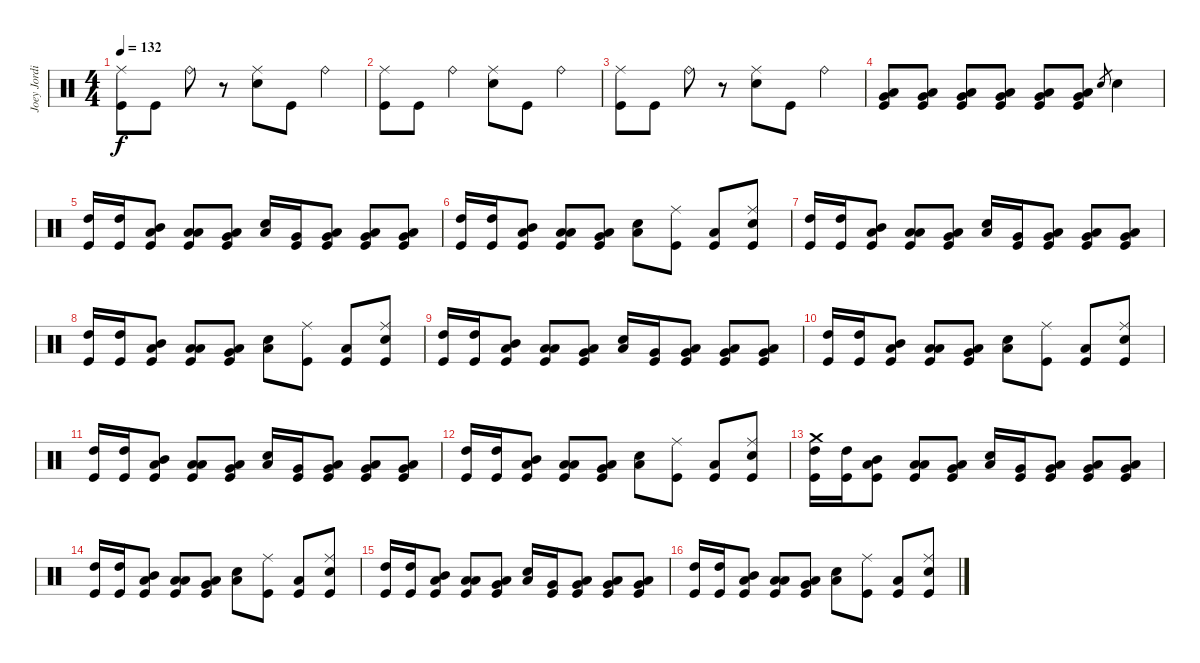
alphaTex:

\track ("Joey Jordison" "Joey Jordi") {instrument percussion}
\staff {score}
\articulation defaults
\ts (4 4)
\tempo 132
\clef neutral
\ks c
("Kick (hit)" "Ride (middle)").8{dy f} "Kick (hit)".8 "Ride (bell)".8 r.8 ("Snare (hit) 2" "Ride (middle)").8 "Kick (hit)".8 "Ride (bell)".4 |
("Kick (hit)" "Ride (middle)").8 "Kick (hit)".8 "Ride (bell)".4 ("Snare (hit) 2" "Ride (middle)").8 "Kick (hit)".8 "Ride (bell)".4 |
("Kick (hit)" "Ride (middle)").8 "Kick (hit)".8 "Ride (bell)".8 r.8 ("Snare (hit) 2" "Ride (middle)").8 "Kick (hit)".8 "Ride (bell)".4 |
("Kick (hit)" "Low Floor Tom (hit)" "Very Low Tom (hit)").8 ("Kick (hit)" "Low Floor Tom (hit)" "Very Low Tom (hit)").8 ("Kick (hit)" "Low Floor Tom (hit)" "Very Low Tom (hit)").8 ("Kick (hit)" "Low Floor Tom (hit)" "Very Low Tom (hit)").8 ("Kick (hit)" "Very Low Tom (hit)" "Low Floor Tom (hit)").8 ("Kick (hit)" "Very Low Tom (hit)" "Low Floor Tom (hit)").8 "Snare (hit)".8{gr} "Snare (hit) 2".4 |
("Kick (hit)" "High Tom (hit)").16 ("Kick (hit)" "High Tom (hit)").16 ("Kick (hit)" "Low Floor Tom (hit)" "Mid Tom (hit)").8 ("Kick (hit)" "Low Floor Tom (hit)" "Low Tom (hit)").8 ("Kick (hit)" "Low Floor Tom (hit)" "Very Low Tom (hit)").8 ("Snare (hit) 2" "Low Floor Tom (hit)").16 ("Kick (hit)" "Very Low Tom (hit)").16 ("Kick (hit)" "Low Floor Tom (hit)" "Very Low Tom (hit)").8 ("Kick (hit)" "Low Floor Tom (hit)" "Very Low Tom (hit)").8 ("Kick (hit)" "Low Floor Tom (hit)" "Very Low Tom (hit)").8 |
("Kick (hit)" "High Tom (hit)").16 ("Kick (hit)" "High Tom (hit)").16 ("Kick (hit)" "Low Floor Tom (hit)" "Mid Tom (hit)").8 ("Kick (hit)" "Low Floor Tom (hit)" "Low Tom (hit)").8 ("Kick (hit)" "Low Floor Tom (hit)" "Very Low Tom (hit)").8 ("Snare (hit) 2" "Low Floor Tom (hit)").8 ("Kick (hit)" "Ride (middle)").8 ("Kick (hit)" "Low Floor Tom (hit)").8 ("Kick (hit)" "Snare (hit) 2" "Ride (middle)").8 |
("Kick (hit)" "High Tom (hit)").16 ("Kick (hit)" "High Tom (hit)").16 ("Kick (hit)" "Low Floor Tom (hit)" "Mid Tom (hit)").8 ("Kick (hit)" "Low Floor Tom (hit)" "Low Tom (hit)").8 ("Kick (hit)" "Low Floor Tom (hit)" "Very Low Tom (hit)").8 ("Snare (hit) 2" "Low Floor Tom (hit)").16 ("Kick (hit)" "Very Low Tom (hit)").16 ("Kick (hit)" "Low Floor Tom (hit)" "Very Low Tom (hit)").8 ("Kick (hit)" "Low Floor Tom (hit)" "Very Low Tom (hit)").8 ("Kick (hit)" "Low Floor Tom (hit)" "Very Low Tom (hit)").8 |
("Kick (hit)" "High Tom (hit)").16 ("Kick (hit)" "High Tom (hit)").16 ("Kick (hit)" "Low Floor Tom (hit)" "Mid Tom (hit)").8 ("Kick (hit)" "Low Floor Tom (hit)" "Low Tom (hit)").8 ("Kick (hit)" "Low Floor Tom (hit)" "Very Low Tom (hit)").8 ("Snare (hit) 2" "Low Floor Tom (hit)").8 ("Kick (hit)" "Ride (middle)").8 ("Kick (hit)" "Low Floor Tom (hit)").8 ("Kick (hit)" "Snare (hit) 2" "Ride (middle)").8 |
("Kick (hit)" "High Tom (hit)").16 ("Kick (hit)" "High Tom (hit)").16 ("Kick (hit)" "Low Floor Tom (hit)" "Mid Tom (hit)").8 ("Kick (hit)" "Low Floor Tom (hit)" "Low Tom (hit)").8 ("Kick (hit)" "Low Floor Tom (hit)" "Very Low Tom (hit)").8 ("Snare (hit) 2" "Low Floor Tom (hit)").16 ("Kick (hit)" "Very Low Tom (hit)").16 ("Kick (hit)" "Low Floor Tom (hit)" "Very Low Tom (hit)").8 ("Kick (hit)" "Low Floor Tom (hit)" "Very Low Tom (hit)").8 ("Kick (hit)" "Low Floor Tom (hit)" "Very Low Tom (hit)").8 |
("Kick (hit)" "High Tom (hit)").16 ("Kick (hit)" "High Tom (hit)").16 ("Kick (hit)" "Low Floor Tom (hit)" "Mid Tom (hit)").8 ("Kick (hit)" "Low Floor Tom (hit)" "Low Tom (hit)").8 ("Kick (hit)" "Low Floor Tom (hit)" "Very Low Tom (hit)").8 ("Snare (hit) 2" "Low Floor Tom (hit)").8 ("Kick (hit)" "Ride (middle)").8 ("Kick (hit)" "Low Floor Tom (hit)").8 ("Kick (hit)" "Snare (hit) 2" "Ride (middle)").8 |
("Kick (hit)" "High Tom (hit)").16 ("Kick (hit)" "High Tom (hit)").16 ("Kick (hit)" "Low Floor Tom (hit)" "Mid Tom (hit)").8 ("Kick (hit)" "Low Floor Tom (hit)" "Low Tom (hit)").8 ("Kick (hit)" "Low Floor Tom (hit)" "Very Low Tom (hit)").8 ("Snare (hit) 2" "Low Floor Tom (hit)").16 ("Kick (hit)" "Very Low Tom (hit)").16 ("Kick (hit)" "Low Floor Tom (hit)" "Very Low Tom (hit)").8 ("Kick (hit)" "Low Floor Tom (hit)" "Very Low Tom (hit)").8 ("Kick (hit)" "Low Floor Tom (hit)" "Very Low Tom (hit)").8 |
("Kick (hit)" "High Tom (hit)").16 ("Kick (hit)" "High Tom (hit)").16 ("Kick (hit)" "Low Floor Tom (hit)" "Mid Tom (hit)").8 ("Kick (hit)" "Low Floor Tom (hit)" "Low Tom (hit)").8 ("Kick (hit)" "Low Floor Tom (hit)" "Very Low Tom (hit)").8 ("Snare (hit) 2" "Low Floor Tom (hit)").8 ("Kick (hit)" "Ride (middle)").8 ("Kick (hit)" "Low Floor Tom (hit)").8 ("Kick (hit)" "Snare (hit) 2" "Ride (middle)").8 |
("Kick (hit)" "High Tom (hit)" "Crash medium (hit)").16 ("Kick (hit)" "High Tom (hit)").16 ("Kick (hit)" "Low Floor Tom (hit)" "Mid Tom (hit)").8 ("Kick (hit)" "Low Floor Tom (hit)" "Low Tom (hit)").8 ("Kick (hit)" "Low Floor Tom (hit)" "Very Low Tom (hit)").8 ("Snare (hit) 2" "Low Floor Tom (hit)").16 ("Kick (hit)" "Very Low Tom (hit)").16 ("Kick (hit)" "Low Floor Tom (hit)" "Very Low Tom (hit)").8 ("Kick (hit)" "Low Floor Tom (hit)" "Very Low Tom (hit)").8 ("Kick (hit)" "Low Floor Tom (hit)" "Very Low Tom (hit)").8 |
("Kick (hit)" "High Tom (hit)").16 ("Kick (hit)" "High Tom (hit)").16 ("Kick (hit)" "Low Floor Tom (hit)" "Mid Tom (hit)").8 ("Kick (hit)" "Low Floor Tom (hit)" "Low Tom (hit)").8 ("Kick (hit)" "Low Floor Tom (hit)" "Very Low Tom (hit)").8 ("Snare (hit) 2" "Low Floor Tom (hit)").8 ("Kick (hit)" "Ride (middle)").8 ("Kick (hit)" "Low Floor Tom (hit)").8 ("Kick (hit)" "Snare (hit) 2" "Ride (middle)").8 |
("Kick (hit)" "High Tom (hit)").16 ("Kick (hit)" "High Tom (hit)").16 ("Kick (hit)" "Low Floor Tom (hit)" "Mid Tom (hit)").8 ("Kick (hit)" "Low Floor Tom (hit)" "Low Tom (hit)").8 ("Kick (hit)" "Low Floor Tom (hit)" "Very Low Tom (hit)").8 ("Snare (hit) 2" "Low Floor Tom (hit)").16 ("Kick (hit)" "Very Low Tom (hit)").16 ("Kick (hit)" "Low Floor Tom (hit)" "Very Low Tom (hit)").8 ("Kick (hit)" "Low Floor Tom (hit)" "Very Low Tom (hit)").8 ("Kick (hit)" "Low Floor Tom (hit)" "Very Low Tom (hit)").8 |
("Kick (hit)" "High Tom (hit)").16 ("Kick (hit)" "High Tom (hit)").16 ("Kick (hit)" "Low Floor Tom (hit)" "Mid Tom (hit)").8 ("Kick (hit)" "Low Floor Tom (hit)" "Low Tom (hit)").8 ("Kick (hit)" "Low Floor Tom (hit)" "Very Low Tom (hit)").8 ("Snare (hit) 2" "Low Floor Tom (hit)").8 ("Kick (hit)" "Ride (middle)").8 ("Kick (hit)" "Low Floor Tom (hit)").8 ("Kick (hit)" "Snare (hit) 2" "Ride (middle)").8
